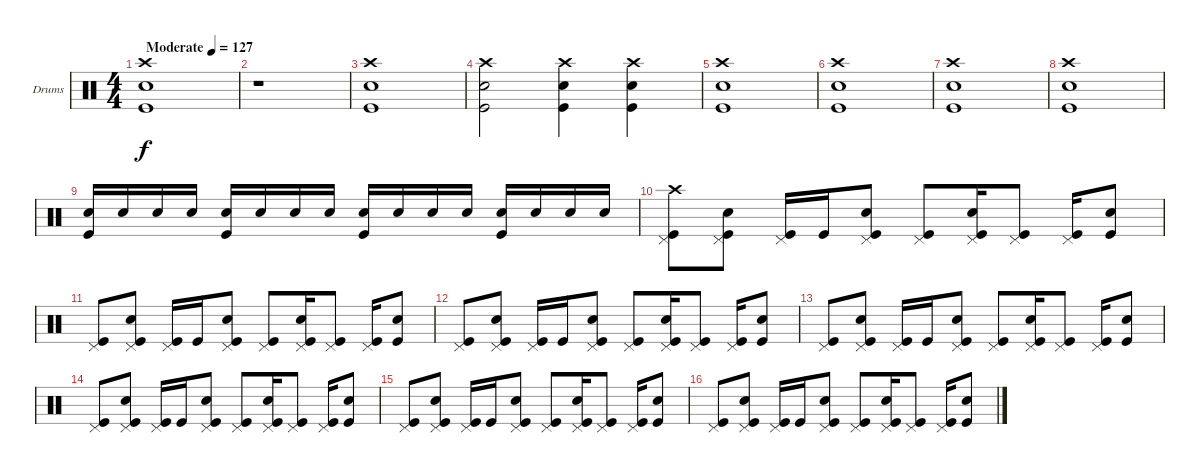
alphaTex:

\bracketExtendMode groupsimilarinstruments
\firstSystemTrackNameOrientation horizontal
\otherSystemsTrackNameOrientation horizontal
\track ("Drumkit" "Drums") {instrument percussion}
\staff {score}
\articulation defaults
\ts (4 4)
\beaming (8 2 2 2 2)
\tempo (127 "Moderate")
\clef neutral
\ks c
("Crash high (hit)" "Snare (hit) 2" "Kick (hit)").1{dy f} |
r.1 |
("Crash high (hit)" "Snare (hit) 2" "Kick (hit)").1 |
("Crash high (hit)" "Snare (hit) 2" "Kick (hit)").2 ("Crash high (hit)" "Snare (hit) 2" "Kick (hit)").4 ("Crash high (hit)" "Snare (hit) 2" "Kick (hit)").4 |
("Crash high (hit)" "Snare (hit) 2" "Kick (hit)").1 |
("Crash high (hit)" "Snare (hit) 2" "Kick (hit)").1 |
("Crash high (hit)" "Snare (hit) 2" "Kick (hit)").1 |
("Crash high (hit)" "Snare (hit) 2" "Kick (hit)").1 |
("Snare (hit) 2" "Kick (hit)").16 "Snare (hit) 2".16 "Snare (hit) 2".16 "Snare (hit) 2".16 ("Snare (hit) 2" "Kick (hit)").16 "Snare (hit) 2".16 "Snare (hit) 2".16 "Snare (hit) 2".16 ("Snare (hit) 2" "Kick (hit)").16 "Snare (hit) 2".16 "Snare (hit) 2".16 "Snare (hit) 2".16 ("Snare (hit) 2" "Kick (hit)").16 "Snare (hit) 2".16 "Snare (hit) 2".16 "Snare (hit) 2".16 |
("Pedal Hi-Hat (hit)" "Crash high (hit)" "Kick (hit)").8 ("Pedal Hi-Hat (hit)" "Snare (hit) 2" "Kick (hit)").8 ("Pedal Hi-Hat (hit)" "Kick (hit)").16 "Kick (hit)".16 ("Pedal Hi-Hat (hit)" "Snare (hit) 2" "Kick (hit)").8 ("Pedal Hi-Hat (hit)" "Kick (hit)").8 ("Pedal Hi-Hat (hit)" "Snare (hit) 2" "Kick (hit)").16 ("Pedal Hi-Hat (hit)" "Kick (hit)").8 ("Pedal Hi-Hat (hit)" "Kick (hit)").16 ("Snare (hit) 2" "Kick (hit)").8 |
("Pedal Hi-Hat (hit)" "Kick (hit)").8 ("Pedal Hi-Hat (hit)" "Snare (hit) 2" "Kick (hit)").8 ("Pedal Hi-Hat (hit)" "Kick (hit)").16 "Kick (hit)".16 ("Pedal Hi-Hat (hit)" "Snare (hit) 2" "Kick (hit)").8 ("Pedal Hi-Hat (hit)" "Kick (hit)").8 ("Pedal Hi-Hat (hit)" "Snare (hit) 2" "Kick (hit)").16 ("Pedal Hi-Hat (hit)" "Kick (hit)").8 ("Pedal Hi-Hat (hit)" "Kick (hit)").16 ("Snare (hit) 2" "Kick (hit)").8 |
("Pedal Hi-Hat (hit)" "Kick (hit)").8 ("Pedal Hi-Hat (hit)" "Snare (hit) 2" "Kick (hit)").8 ("Pedal Hi-Hat (hit)" "Kick (hit)").16 "Kick (hit)".16 ("Pedal Hi-Hat (hit)" "Snare (hit) 2" "Kick (hit)").8 ("Pedal Hi-Hat (hit)" "Kick (hit)").8 ("Pedal Hi-Hat (hit)" "Snare (hit) 2" "Kick (hit)").16 ("Pedal Hi-Hat (hit)" "Kick (hit)").8 ("Pedal Hi-Hat (hit)" "Kick (hit)").16 ("Snare (hit) 2" "Kick (hit)").8 |
("Pedal Hi-Hat (hit)" "Kick (hit)").8 ("Pedal Hi-Hat (hit)" "Snare (hit) 2" "Kick (hit)").8 ("Pedal Hi-Hat (hit)" "Kick (hit)").16 "Kick (hit)".16 ("Pedal Hi-Hat (hit)" "Snare (hit) 2" "Kick (hit)").8 ("Pedal Hi-Hat (hit)" "Kick (hit)").8 ("Pedal Hi-Hat (hit)" "Snare (hit) 2" "Kick (hit)").16 ("Pedal Hi-Hat (hit)" "Kick (hit)").8 ("Pedal Hi-Hat (hit)" "Kick (hit)").16 ("Snare (hit) 2" "Kick (hit)").8 |
("Pedal Hi-Hat (hit)" "Kick (hit)").8 ("Pedal Hi-Hat (hit)" "Snare (hit) 2" "Kick (hit)").8 ("Pedal Hi-Hat (hit)" "Kick (hit)").16 "Kick (hit)".16 ("Pedal Hi-Hat (hit)" "Snare (hit) 2" "Kick (hit)").8 ("Pedal Hi-Hat (hit)" "Kick (hit)").8 ("Pedal Hi-Hat (hit)" "Snare (hit) 2" "Kick (hit)").16 ("Pedal Hi-Hat (hit)" "Kick (hit)").8 ("Pedal Hi-Hat (hit)" "Kick (hit)").16 ("Snare (hit) 2" "Kick (hit)").8 |
("Pedal Hi-Hat (hit)" "Kick (hit)").8 ("Pedal Hi-Hat (hit)" "Snare (hit) 2" "Kick (hit)").8 ("Pedal Hi-Hat (hit)" "Kick (hit)").16 "Kick (hit)".16 ("Pedal Hi-Hat (hit)" "Snare (hit) 2" "Kick (hit)").8 ("Pedal Hi-Hat (hit)" "Kick (hit)").8 ("Pedal Hi-Hat (hit)" "Snare (hit) 2" "Kick (hit)").16 ("Pedal Hi-Hat (hit)" "Kick (hit)").8 ("Pedal Hi-Hat (hit)" "Kick (hit)").16 ("Snare (hit) 2" "Kick (hit)").8 |
("Pedal Hi-Hat (hit)" "Kick (hit)").8 ("Pedal Hi-Hat (hit)" "Snare (hit) 2" "Kick (hit)").8 ("Pedal Hi-Hat (hit)" "Kick (hit)").16 "Kick (hit)".16 ("Pedal Hi-Hat (hit)" "Snare (hit) 2" "Kick (hit)").8 ("Pedal Hi-Hat (hit)" "Kick (hit)").8 ("Pedal Hi-Hat (hit)" "Snare (hit) 2" "Kick (hit)").16 ("Pedal Hi-Hat (hit)" "Kick (hit)").8 ("Pedal Hi-Hat (hit)" "Kick (hit)").16 ("Snare (hit) 2" "Kick (hit)").8
